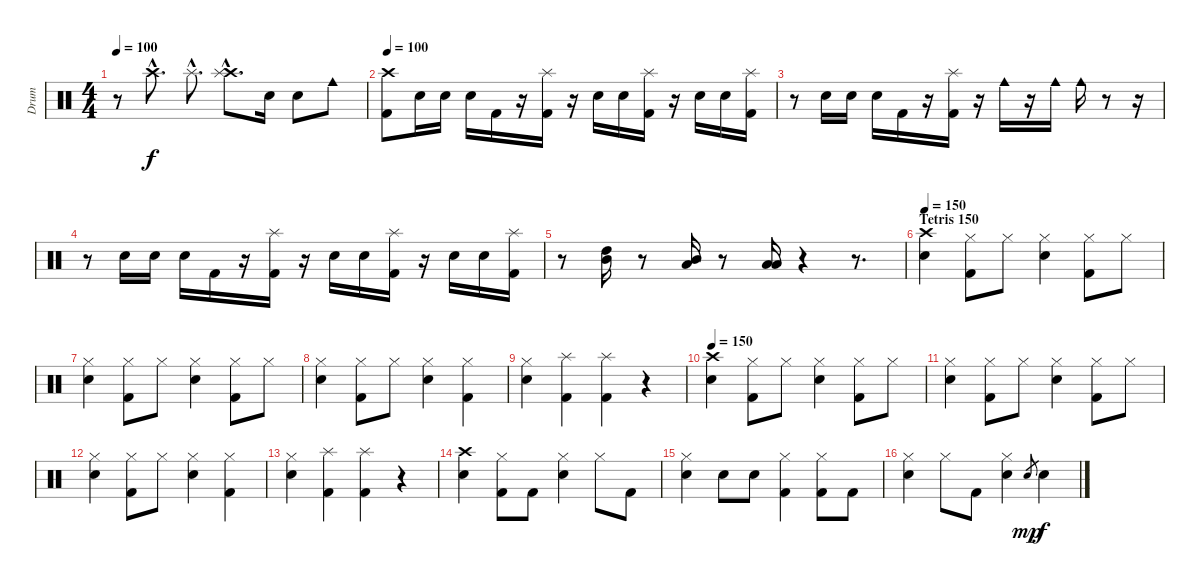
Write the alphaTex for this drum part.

\track ("Drum" "Drum") {instrument percussion}
\staff {score}
\articulation defaults
\ts (4 4)
\tempo 100
\clef neutral
\ks c
r.8{dy f} "Crash high (hit)"{hac}.8{d} "Splash (hit)"{hac}.8{d} ("Crash high (hit)"{hac} "Splash (hit)"{hac}).8{d} "Electric Snare (hit)".16 "Electric Snare (hit)".8 "Cowbell medium (hit)".8 |
\tempo 100
("Crash high (hit)" "Kick (hit) 2").8 "Electric Snare (hit)".16 "Electric Snare (hit)".16 "Electric Snare (hit)".16 "Kick (hit) 2".16 r.16 ("Splash (hit)" "Kick (hit) 2").16 r.16 "Electric Snare (hit)".16 "Electric Snare (hit)".16 ("Splash (hit)" "Kick (hit) 2").16 r.16 "Electric Snare (hit)".16 "Electric Snare (hit)".16 ("Splash (hit)" "Kick (hit) 2").16 |
r.8 "Electric Snare (hit)".16 "Electric Snare (hit)".16 "Electric Snare (hit)".16 "Kick (hit) 2".16 r.16 ("Splash (hit)" "Kick (hit) 2").16 r.16 "Cowbell medium (hit)".16 r.16 "Cowbell medium (hit)".16 "Cowbell medium (hit)".16 r.8 r.16 |
r.8 "Electric Snare (hit)".16 "Electric Snare (hit)".16 "Electric Snare (hit)".16 "Kick (hit) 2".16 r.16 ("Splash (hit)" "Kick (hit) 2").16 r.16 "Electric Snare (hit)".16 "Electric Snare (hit)".16 ("Splash (hit)" "Kick (hit) 2").16 r.16 "Electric Snare (hit)".16 "Electric Snare (hit)".16 ("Splash (hit)" "Kick (hit) 2").16 |
r.8 ("High Tom (hit)" "Mid Tom (hit)").16 r.8 ("Mid Tom (hit)" "Low Tom (hit)").16 r.8 ("Low Tom (hit)" "Low Floor Tom (hit)").16 r.4 r.8{d} |
\section ("" "Tetris 150")
\tempo 150
("Crash high (hit)" "Electric Snare (hit)").4 ("Hi-Hat (closed)" "Kick (hit) 2").8 "Hi-Hat (closed)".8 ("Hi-Hat (closed)" "Electric Snare (hit)").4 ("Hi-Hat (closed)" "Kick (hit) 2").8 "Hi-Hat (closed)".8 |
("Hi-Hat (closed)" "Electric Snare (hit)").4 ("Hi-Hat (closed)" "Kick (hit) 2").8 "Hi-Hat (closed)".8 ("Hi-Hat (closed)" "Electric Snare (hit)").4 ("Hi-Hat (closed)" "Kick (hit) 2").8 "Hi-Hat (closed)".8 |
("Hi-Hat (closed)" "Electric Snare (hit)").4 ("Hi-Hat (closed)" "Kick (hit) 2").8 "Hi-Hat (closed)".8 ("Hi-Hat (closed)" "Electric Snare (hit)").4 ("Hi-Hat (closed)" "Kick (hit) 2").4 |
("Hi-Hat (closed)" "Electric Snare (hit)").4 ("Splash (hit)" "Kick (hit) 2").4 ("Splash (hit)" "Kick (hit) 2").4 r.4 |
\tempo 150
("Crash high (hit)" "Electric Snare (hit)").4 ("Hi-Hat (closed)" "Kick (hit) 2").8 "Hi-Hat (closed)".8 ("Hi-Hat (closed)" "Electric Snare (hit)").4 ("Hi-Hat (closed)" "Kick (hit) 2").8 "Hi-Hat (closed)".8 |
("Hi-Hat (closed)" "Electric Snare (hit)").4 ("Hi-Hat (closed)" "Kick (hit) 2").8 "Hi-Hat (closed)".8 ("Hi-Hat (closed)" "Electric Snare (hit)").4 ("Hi-Hat (closed)" "Kick (hit) 2").8 "Hi-Hat (closed)".8 |
("Hi-Hat (closed)" "Electric Snare (hit)").4 ("Hi-Hat (closed)" "Kick (hit) 2").8 "Hi-Hat (closed)".8 ("Hi-Hat (closed)" "Electric Snare (hit)").4 ("Hi-Hat (closed)" "Kick (hit) 2").4 |
("Hi-Hat (closed)" "Electric Snare (hit)").4 ("Splash (hit)" "Kick (hit) 2").4 ("Splash (hit)" "Kick (hit) 2").4 r.4 |
("Crash high (hit)" "Electric Snare (hit)").4 ("Hi-Hat (closed)" "Kick (hit) 2").8 "Kick (hit) 2".8 ("Hi-Hat (closed)" "Electric Snare (hit)").4 "Hi-Hat (closed)".8 "Kick (hit) 2".8 |
("Hi-Hat (closed)" "Electric Snare (hit)").4 "Electric Snare (hit)".8 "Electric Snare (hit)".8 ("Hi-Hat (closed)" "Kick (hit) 2").4 ("Hi-Hat (closed)" "Kick (hit) 2").8 "Kick (hit) 2".8 |
("Hi-Hat (closed)" "Electric Snare (hit)").4 "Hi-Hat (closed)".8 "Kick (hit) 2".8 ("Hi-Hat (closed)" "Electric Snare (hit)").4 "Electric Snare (hit)".8{gr dy mp} "Electric Snare (hit)".4{dy f}
